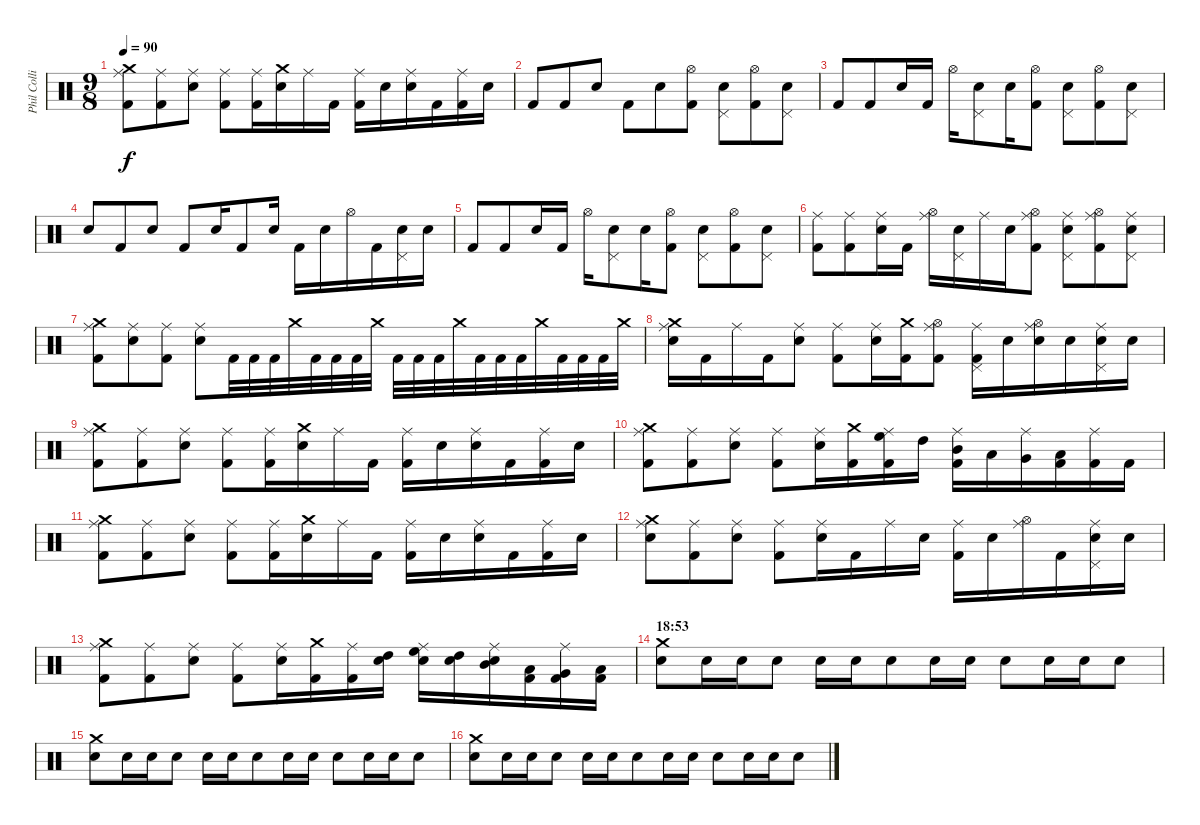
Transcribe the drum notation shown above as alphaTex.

\track ("Phil Collins (drums)" "Phil Colli") {instrument percussion}
\staff {score}
\articulation defaults
\ts (9 8)
\tempo 90
\clef neutral
\ks c
("Ride (middle)" "Crash medium (hit)" "Kick (hit) 2").8{dy f} ("Ride (middle)" "Kick (hit) 2").8 ("Ride (middle)" "Electric Snare (hit)").8 ("Ride (middle)" "Kick (hit) 2").8 ("Ride (middle)" "Kick (hit) 2").16 ("Crash medium (hit)" "Electric Snare (hit)").16 "Ride (middle)".16 "Kick (hit) 2".16 ("Ride (middle)" "Kick (hit) 2").16 "Electric Snare (hit)".16 ("Ride (middle)" "Electric Snare (hit)").16 "Kick (hit) 2".16 ("Ride (middle)" "Kick (hit) 2").16 "Electric Snare (hit)".16 |
"Kick (hit) 2".8 "Kick (hit) 2".8 "Electric Snare (hit)".8 "Kick (hit) 2".8 "Electric Snare (hit)".8 ("Hi-Hat (open)" "Kick (hit) 2").8 ("Pedal Hi-Hat (hit)" "Electric Snare (hit)").8 ("Hi-Hat (open)" "Kick (hit) 2").8 ("Pedal Hi-Hat (hit)" "Electric Snare (hit)").8 |
"Kick (hit) 2".8 "Kick (hit) 2".8 "Electric Snare (hit)".16 "Kick (hit) 2".16 "Hi-Hat (open)".16 ("Pedal Hi-Hat (hit)" "Electric Snare (hit)").8 "Electric Snare (hit)".16 ("Hi-Hat (open)" "Kick (hit) 2").8 ("Pedal Hi-Hat (hit)" "Electric Snare (hit)").8 ("Hi-Hat (open)" "Kick (hit) 2").8 ("Pedal Hi-Hat (hit)" "Electric Snare (hit)").8 |
"Electric Snare (hit)".8 "Kick (hit) 2".8 "Electric Snare (hit)".8 "Kick (hit) 2".8 "Electric Snare (hit)".16 "Kick (hit) 2".8 "Electric Snare (hit)".16 "Kick (hit) 2".16 "Electric Snare (hit)".16 "Hi-Hat (open)".16 "Kick (hit) 2".16 ("Pedal Hi-Hat (hit)" "Electric Snare (hit)").16 "Electric Snare (hit)".16 |
"Kick (hit) 2".8 "Kick (hit) 2".8 "Electric Snare (hit)".16 "Kick (hit) 2".16 "Hi-Hat (open)".16 ("Pedal Hi-Hat (hit)" "Electric Snare (hit)").8 "Electric Snare (hit)".16 ("Hi-Hat (open)" "Kick (hit) 2").8 ("Pedal Hi-Hat (hit)" "Electric Snare (hit)").8 ("Hi-Hat (open)" "Kick (hit) 2").8 ("Pedal Hi-Hat (hit)" "Electric Snare (hit)").8 |
("Ride (middle)" "Kick (hit) 2").8 ("Ride (middle)" "Kick (hit) 2").8 ("Ride (middle)" "Electric Snare (hit)").16 "Kick (hit) 2".16 ("Ride (middle)" "Hi-Hat (open)").16 ("Pedal Hi-Hat (hit)" "Electric Snare (hit)").16 "Ride (middle)".16 "Electric Snare (hit)".16 ("Ride (middle)" "Hi-Hat (open)" "Kick (hit) 2").8 ("Ride (middle)" "Pedal Hi-Hat (hit)" "Electric Snare (hit)").8 ("Ride (middle)" "Hi-Hat (open)" "Kick (hit) 2").8 ("Ride (middle)" "Pedal Hi-Hat (hit)" "Electric Snare (hit)").8 |
("Ride (middle)" "Crash medium (hit)" "Kick (hit) 2").8 ("Ride (middle)" "Electric Snare (hit)").8 ("Ride (middle)" "Kick (hit) 2").8 ("Ride (middle)" "Electric Snare (hit)").8 "Kick (hit) 2".32 "Kick (hit) 2".32 "Kick (hit) 2".32 "Crash medium (hit)".32 "Kick (hit) 2".32 "Kick (hit) 2".32 "Kick (hit) 2".32 "Crash medium (hit)".32 "Kick (hit) 2".32 "Kick (hit) 2".32 "Kick (hit) 2".32 "Crash medium (hit)".32 "Kick (hit) 2".32 "Kick (hit) 2".32 "Kick (hit) 2".32 "Crash medium (hit)".32 "Kick (hit) 2".32 "Kick (hit) 2".32 "Kick (hit) 2".32 "Crash medium (hit)".32 |
("Ride (middle)" "Crash medium (hit)" "Electric Snare (hit)").16 "Kick (hit) 2".16 "Ride (middle)".16 "Kick (hit) 2".16 ("Ride (middle)" "Electric Snare (hit)").8 ("Ride (middle)" "Kick (hit) 2").8 ("Ride (middle)" "Electric Snare (hit)").16 ("Crash medium (hit)" "Kick (hit) 2").16 ("Ride (middle)" "Hi-Hat (open)" "Kick (hit) 2").8 ("Ride (middle)" "Pedal Hi-Hat (hit)" "Kick (hit) 2").16 "Electric Snare (hit)".16 ("Ride (middle)" "Hi-Hat (open)" "Electric Snare (hit)").16 "Electric Snare (hit)".16 ("Ride (middle)" "Pedal Hi-Hat (hit)" "Electric Snare (hit)").16 "Electric Snare (hit)".16 |
("Ride (middle)" "Crash medium (hit)" "Kick (hit) 2").8 ("Ride (middle)" "Kick (hit) 2").8 ("Ride (middle)" "Electric Snare (hit)").8 ("Ride (middle)" "Kick (hit) 2").8 ("Ride (middle)" "Kick (hit) 2").16 ("Crash medium (hit)" "Electric Snare (hit)").16 "Ride (middle)".16 "Kick (hit) 2".16 ("Ride (middle)" "Kick (hit) 2").16 "Electric Snare (hit)".16 ("Ride (middle)" "Electric Snare (hit)").16 "Kick (hit) 2".16 ("Ride (middle)" "Kick (hit) 2").16 "Electric Snare (hit)".16 |
("Ride (middle)" "Crash medium (hit)" "Kick (hit) 2").8 ("Ride (middle)" "Kick (hit) 2").8 ("Ride (middle)" "Electric Snare (hit)").8 ("Ride (middle)" "Kick (hit) 2").8 ("Ride (middle)" "Electric Snare (hit)").16 ("Crash medium (hit)" "Kick (hit) 2").16 ("Ride (middle)" "High Floor Tom (hit)" "Kick (hit) 2").16 "High Tom (hit)".16 ("Ride (middle)" "Mid Tom (hit)" "Kick (hit) 2").16 "Low Tom (hit)".16 ("Ride (middle)" "Very Low Tom (hit)").16 ("Low Floor Tom (hit)" "Kick (hit) 2").16 ("Ride (middle)" "Kick (hit) 2").16 "Kick (hit) 2".16 |
("Ride (middle)" "Crash medium (hit)" "Kick (hit) 2").8 ("Ride (middle)" "Kick (hit) 2").8 ("Ride (middle)" "Electric Snare (hit)").8 ("Ride (middle)" "Kick (hit) 2").8 ("Ride (middle)" "Kick (hit) 2").16 ("Crash medium (hit)" "Electric Snare (hit)").16 "Ride (middle)".16 "Kick (hit) 2".16 ("Ride (middle)" "Kick (hit) 2").16 "Electric Snare (hit)".16 ("Ride (middle)" "Electric Snare (hit)").16 "Kick (hit) 2".16 ("Ride (middle)" "Kick (hit) 2").16 "Electric Snare (hit)".16 |
("Ride (middle)" "Crash medium (hit)" "Electric Snare (hit)").8 ("Ride (middle)" "Kick (hit) 2").8 ("Ride (middle)" "Electric Snare (hit)").8 ("Ride (middle)" "Kick (hit) 2").8 ("Ride (middle)" "Electric Snare (hit)").16 "Kick (hit) 2".16 "Ride (middle)".16 "Electric Snare (hit)".16 ("Ride (middle)" "Kick (hit) 2").16 "Electric Snare (hit)".16 ("Ride (middle)" "Hi-Hat (open)").16 "Kick (hit) 2".16 ("Ride (middle)" "Pedal Hi-Hat (hit)" "Electric Snare (hit)").16 "Electric Snare (hit)".16 |
("Ride (middle)" "Crash medium (hit)" "Kick (hit) 2").8 ("Ride (middle)" "Kick (hit) 2").8 ("Ride (middle)" "Electric Snare (hit)").8 ("Ride (middle)" "Kick (hit) 2").8 ("Ride (middle)" "Electric Snare (hit)").16 ("Crash medium (hit)" "Kick (hit) 2").16 ("Ride (middle)" "Kick (hit) 2").16 ("High Tom (hit)" "Electric Snare (hit)").16 ("Ride (middle)" "High Floor Tom (hit)" "Electric Snare (hit)").16 ("High Tom (hit)" "Electric Snare (hit)").16 ("Ride (middle)" "Mid Tom (hit)" "Electric Snare (hit)").16 ("Low Tom (hit)" "Kick (hit) 2").16 ("Ride (middle)" "Very Low Tom (hit)" "Kick (hit) 2").16 ("Low Floor Tom (hit)" "Kick (hit) 2").16 |
\section ("" "18:53")
("Crash medium (hit)" "Electric Snare (hit)").8 "Electric Snare (hit)".16 "Electric Snare (hit)".16 "Electric Snare (hit)".8 "Electric Snare (hit)".16 "Electric Snare (hit)".16 "Electric Snare (hit)".8 "Electric Snare (hit)".16 "Electric Snare (hit)".16 "Electric Snare (hit)".8 "Electric Snare (hit)".16 "Electric Snare (hit)".16 "Electric Snare (hit)".8 |
("Crash medium (hit)" "Electric Snare (hit)").8 "Electric Snare (hit)".16 "Electric Snare (hit)".16 "Electric Snare (hit)".8 "Electric Snare (hit)".16 "Electric Snare (hit)".16 "Electric Snare (hit)".8 "Electric Snare (hit)".16 "Electric Snare (hit)".16 "Electric Snare (hit)".8 "Electric Snare (hit)".16 "Electric Snare (hit)".16 "Electric Snare (hit)".8 |
("Crash medium (hit)" "Electric Snare (hit)").8 "Electric Snare (hit)".16 "Electric Snare (hit)".16 "Electric Snare (hit)".8 "Electric Snare (hit)".16 "Electric Snare (hit)".16 "Electric Snare (hit)".8 "Electric Snare (hit)".16 "Electric Snare (hit)".16 "Electric Snare (hit)".8 "Electric Snare (hit)".16 "Electric Snare (hit)".16 "Electric Snare (hit)".8
